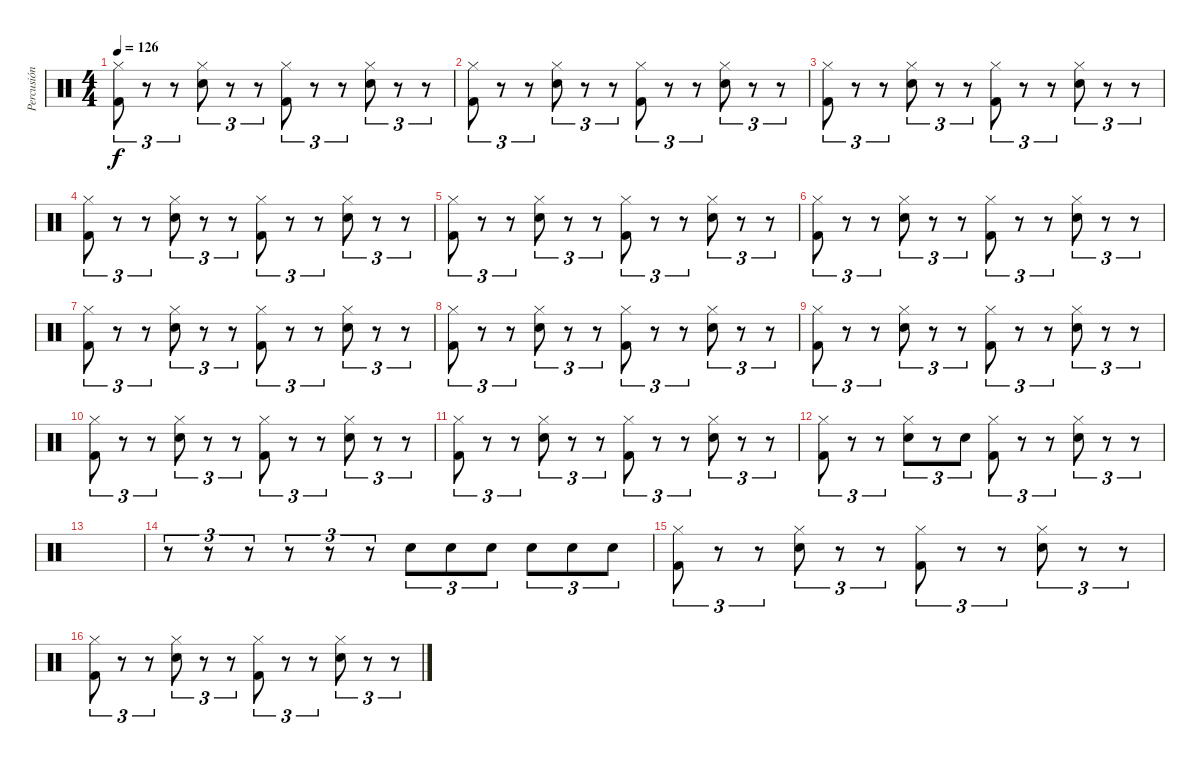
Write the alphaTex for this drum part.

\track ("Percusión" "Percusión") {instrument percussion}
\staff {score}
\articulation defaults
\ts (4 4)
\tempo 126
\clef neutral
\ks c
("Hi-Hat (closed)" "Kick (hit) 2").8{tu (3 2) dy f} r.8{tu (3 2)} r.8{tu (3 2)} ("Hi-Hat (closed)" "Electric Snare (hit)").8{tu (3 2)} r.8{tu (3 2)} r.8{tu (3 2)} ("Hi-Hat (closed)" "Kick (hit) 2").8{tu (3 2)} r.8{tu (3 2)} r.8{tu (3 2)} ("Hi-Hat (closed)" "Electric Snare (hit)").8{tu (3 2)} r.8{tu (3 2)} r.8{tu (3 2)} |
("Hi-Hat (closed)" "Kick (hit) 2").8{tu (3 2)} r.8{tu (3 2)} r.8{tu (3 2)} ("Hi-Hat (closed)" "Electric Snare (hit)").8{tu (3 2)} r.8{tu (3 2)} r.8{tu (3 2)} ("Hi-Hat (closed)" "Kick (hit) 2").8{tu (3 2)} r.8{tu (3 2)} r.8{tu (3 2)} ("Hi-Hat (closed)" "Electric Snare (hit)").8{tu (3 2)} r.8{tu (3 2)} r.8{tu (3 2)} |
("Hi-Hat (closed)" "Kick (hit) 2").8{tu (3 2)} r.8{tu (3 2)} r.8{tu (3 2)} ("Hi-Hat (closed)" "Electric Snare (hit)").8{tu (3 2)} r.8{tu (3 2)} r.8{tu (3 2)} ("Hi-Hat (closed)" "Kick (hit) 2").8{tu (3 2)} r.8{tu (3 2)} r.8{tu (3 2)} ("Hi-Hat (closed)" "Electric Snare (hit)").8{tu (3 2)} r.8{tu (3 2)} r.8{tu (3 2)} |
("Hi-Hat (closed)" "Kick (hit) 2").8{tu (3 2)} r.8{tu (3 2)} r.8{tu (3 2)} ("Hi-Hat (closed)" "Electric Snare (hit)").8{tu (3 2)} r.8{tu (3 2)} r.8{tu (3 2)} ("Hi-Hat (closed)" "Kick (hit) 2").8{tu (3 2)} r.8{tu (3 2)} r.8{tu (3 2)} ("Hi-Hat (closed)" "Electric Snare (hit)").8{tu (3 2)} r.8{tu (3 2)} r.8{tu (3 2)} |
("Hi-Hat (closed)" "Kick (hit) 2").8{tu (3 2)} r.8{tu (3 2)} r.8{tu (3 2)} ("Hi-Hat (closed)" "Electric Snare (hit)").8{tu (3 2)} r.8{tu (3 2)} r.8{tu (3 2)} ("Hi-Hat (closed)" "Kick (hit) 2").8{tu (3 2)} r.8{tu (3 2)} r.8{tu (3 2)} ("Hi-Hat (closed)" "Electric Snare (hit)").8{tu (3 2)} r.8{tu (3 2)} r.8{tu (3 2)} |
("Hi-Hat (closed)" "Kick (hit) 2").8{tu (3 2)} r.8{tu (3 2)} r.8{tu (3 2)} ("Hi-Hat (closed)" "Electric Snare (hit)").8{tu (3 2)} r.8{tu (3 2)} r.8{tu (3 2)} ("Hi-Hat (closed)" "Kick (hit) 2").8{tu (3 2)} r.8{tu (3 2)} r.8{tu (3 2)} ("Hi-Hat (closed)" "Electric Snare (hit)").8{tu (3 2)} r.8{tu (3 2)} r.8{tu (3 2)} |
("Hi-Hat (closed)" "Kick (hit) 2").8{tu (3 2)} r.8{tu (3 2)} r.8{tu (3 2)} ("Hi-Hat (closed)" "Electric Snare (hit)").8{tu (3 2)} r.8{tu (3 2)} r.8{tu (3 2)} ("Hi-Hat (closed)" "Kick (hit) 2").8{tu (3 2)} r.8{tu (3 2)} r.8{tu (3 2)} ("Hi-Hat (closed)" "Electric Snare (hit)").8{tu (3 2)} r.8{tu (3 2)} r.8{tu (3 2)} |
("Hi-Hat (closed)" "Kick (hit) 2").8{tu (3 2)} r.8{tu (3 2)} r.8{tu (3 2)} ("Hi-Hat (closed)" "Electric Snare (hit)").8{tu (3 2)} r.8{tu (3 2)} r.8{tu (3 2)} ("Hi-Hat (closed)" "Kick (hit) 2").8{tu (3 2)} r.8{tu (3 2)} r.8{tu (3 2)} ("Hi-Hat (closed)" "Electric Snare (hit)").8{tu (3 2)} r.8{tu (3 2)} r.8{tu (3 2)} |
("Hi-Hat (closed)" "Kick (hit) 2").8{tu (3 2)} r.8{tu (3 2)} r.8{tu (3 2)} ("Hi-Hat (closed)" "Electric Snare (hit)").8{tu (3 2)} r.8{tu (3 2)} r.8{tu (3 2)} ("Hi-Hat (closed)" "Kick (hit) 2").8{tu (3 2)} r.8{tu (3 2)} r.8{tu (3 2)} ("Hi-Hat (closed)" "Electric Snare (hit)").8{tu (3 2)} r.8{tu (3 2)} r.8{tu (3 2)} |
("Hi-Hat (closed)" "Kick (hit) 2").8{tu (3 2)} r.8{tu (3 2)} r.8{tu (3 2)} ("Hi-Hat (closed)" "Electric Snare (hit)").8{tu (3 2)} r.8{tu (3 2)} r.8{tu (3 2)} ("Hi-Hat (closed)" "Kick (hit) 2").8{tu (3 2)} r.8{tu (3 2)} r.8{tu (3 2)} ("Hi-Hat (closed)" "Electric Snare (hit)").8{tu (3 2)} r.8{tu (3 2)} r.8{tu (3 2)} |
("Hi-Hat (closed)" "Kick (hit) 2").8{tu (3 2)} r.8{tu (3 2)} r.8{tu (3 2)} ("Hi-Hat (closed)" "Electric Snare (hit)").8{tu (3 2)} r.8{tu (3 2)} r.8{tu (3 2)} ("Hi-Hat (closed)" "Kick (hit) 2").8{tu (3 2)} r.8{tu (3 2)} r.8{tu (3 2)} ("Hi-Hat (closed)" "Electric Snare (hit)").8{tu (3 2)} r.8{tu (3 2)} r.8{tu (3 2)} |
("Hi-Hat (closed)" "Kick (hit) 2").8{tu (3 2)} r.8{tu (3 2)} r.8{tu (3 2)} ("Hi-Hat (closed)" "Electric Snare (hit)").8{tu (3 2)} r.8{tu (3 2)} "Electric Snare (hit)".8{tu (3 2)} ("Hi-Hat (closed)" "Kick (hit) 2").8{tu (3 2)} r.8{tu (3 2)} r.8{tu (3 2)} ("Hi-Hat (closed)" "Electric Snare (hit)").8{tu (3 2)} r.8{tu (3 2)} r.8{tu (3 2)} |
|
r.8{tu (3 2)} r.8{tu (3 2)} r.8{tu (3 2)} r.8{tu (3 2)} r.8{tu (3 2)} r.8{tu (3 2)} "Electric Snare (hit)".8{tu (3 2)} "Electric Snare (hit)".8{tu (3 2)} "Electric Snare (hit)".8{tu (3 2)} "Electric Snare (hit)".8{tu (3 2)} "Electric Snare (hit)".8{tu (3 2)} "Electric Snare (hit)".8{tu (3 2)} |
("Hi-Hat (closed)" "Kick (hit) 2").8{tu (3 2)} r.8{tu (3 2)} r.8{tu (3 2)} ("Hi-Hat (closed)" "Electric Snare (hit)").8{tu (3 2)} r.8{tu (3 2)} r.8{tu (3 2)} ("Hi-Hat (closed)" "Kick (hit) 2").8{tu (3 2)} r.8{tu (3 2)} r.8{tu (3 2)} ("Hi-Hat (closed)" "Electric Snare (hit)").8{tu (3 2)} r.8{tu (3 2)} r.8{tu (3 2)} |
("Hi-Hat (closed)" "Kick (hit) 2").8{tu (3 2)} r.8{tu (3 2)} r.8{tu (3 2)} ("Hi-Hat (closed)" "Electric Snare (hit)").8{tu (3 2)} r.8{tu (3 2)} r.8{tu (3 2)} ("Hi-Hat (closed)" "Kick (hit) 2").8{tu (3 2)} r.8{tu (3 2)} r.8{tu (3 2)} ("Hi-Hat (closed)" "Electric Snare (hit)").8{tu (3 2)} r.8{tu (3 2)} r.8{tu (3 2)}
